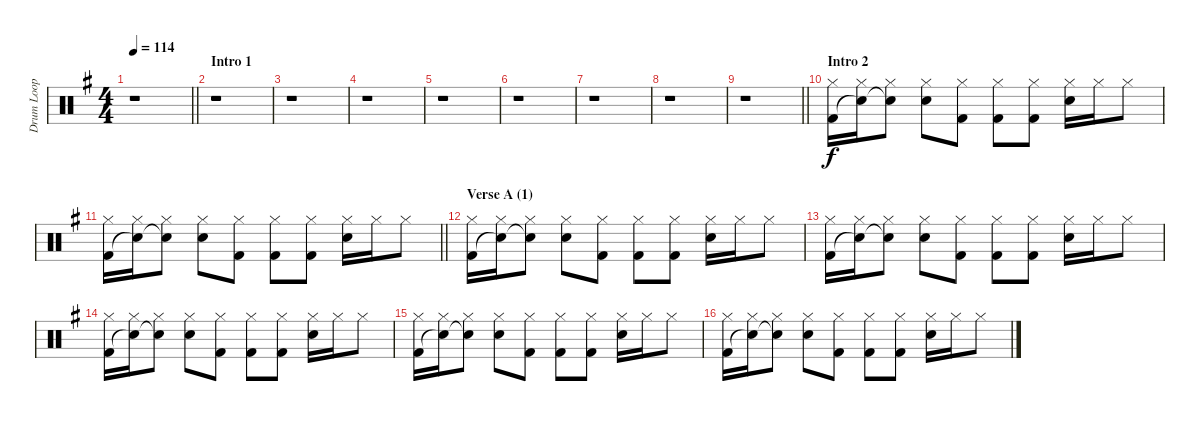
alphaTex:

\track ("Drum Loop" "Drum Loop") {instrument percussion}
\staff {score}
\articulation defaults
\ts (4 4)
\tempo 114
\clef neutral
\barLineRight lightlight
\ks eminor
r.1{dy f} |
\section ("" "Intro 1")
r.1 |
r.1 |
r.1 |
r.1 |
r.1 |
r.1 |
r.1 |
\barLineRight lightlight
r.1 |
\section ("" "Intro 2")
("Hi-Hat (closed)" "Kick (hit) 2").16 ("Hi-Hat (closed)" "Snare (hit)"{t}).16 ("Hi-Hat (closed)" "Snare (hit)"{t}).8 ("Hi-Hat (closed)" "Electric Snare (hit)").8 ("Hi-Hat (closed)" "Kick (hit) 2").8 ("Hi-Hat (closed)" "Kick (hit) 2").8 ("Hi-Hat (closed)" "Kick (hit) 2").8 ("Hi-Hat (closed)" "Electric Snare (hit)").16 "Hi-Hat (closed)".16 "Hi-Hat (closed)".8 |
\barLineRight lightlight
("Hi-Hat (closed)" "Kick (hit) 2").16 ("Hi-Hat (closed)" "Snare (hit)"{t}).16 ("Hi-Hat (closed)" "Snare (hit)"{t}).8 ("Hi-Hat (closed)" "Electric Snare (hit)").8 ("Hi-Hat (closed)" "Kick (hit) 2").8 ("Hi-Hat (closed)" "Kick (hit) 2").8 ("Hi-Hat (closed)" "Kick (hit) 2").8 ("Hi-Hat (closed)" "Electric Snare (hit)").16 "Hi-Hat (closed)".16 "Hi-Hat (closed)".8 |
\section ("" "Verse A (1)")
("Hi-Hat (closed)" "Kick (hit) 2").16 ("Hi-Hat (closed)" "Snare (hit)"{t}).16 ("Hi-Hat (closed)" "Snare (hit)"{t}).8 ("Hi-Hat (closed)" "Electric Snare (hit)").8 ("Hi-Hat (closed)" "Kick (hit) 2").8 ("Hi-Hat (closed)" "Kick (hit) 2").8 ("Hi-Hat (closed)" "Kick (hit) 2").8 ("Hi-Hat (closed)" "Electric Snare (hit)").16 "Hi-Hat (closed)".16 "Hi-Hat (closed)".8 |
("Hi-Hat (closed)" "Kick (hit) 2").16 ("Hi-Hat (closed)" "Snare (hit)"{t}).16 ("Hi-Hat (closed)" "Snare (hit)"{t}).8 ("Hi-Hat (closed)" "Electric Snare (hit)").8 ("Hi-Hat (closed)" "Kick (hit) 2").8 ("Hi-Hat (closed)" "Kick (hit) 2").8 ("Hi-Hat (closed)" "Kick (hit) 2").8 ("Hi-Hat (closed)" "Electric Snare (hit)").16 "Hi-Hat (closed)".16 "Hi-Hat (closed)".8 |
("Hi-Hat (closed)" "Kick (hit) 2").16 ("Hi-Hat (closed)" "Snare (hit)"{t}).16 ("Hi-Hat (closed)" "Snare (hit)"{t}).8 ("Hi-Hat (closed)" "Electric Snare (hit)").8 ("Hi-Hat (closed)" "Kick (hit) 2").8 ("Hi-Hat (closed)" "Kick (hit) 2").8 ("Hi-Hat (closed)" "Kick (hit) 2").8 ("Hi-Hat (closed)" "Electric Snare (hit)").16 "Hi-Hat (closed)".16 "Hi-Hat (closed)".8 |
("Hi-Hat (closed)" "Kick (hit) 2").16 ("Hi-Hat (closed)" "Snare (hit)"{t}).16 ("Hi-Hat (closed)" "Snare (hit)"{t}).8 ("Hi-Hat (closed)" "Electric Snare (hit)").8 ("Hi-Hat (closed)" "Kick (hit) 2").8 ("Hi-Hat (closed)" "Kick (hit) 2").8 ("Hi-Hat (closed)" "Kick (hit) 2").8 ("Hi-Hat (closed)" "Electric Snare (hit)").16 "Hi-Hat (closed)".16 "Hi-Hat (closed)".8 |
("Hi-Hat (closed)" "Kick (hit) 2").16 ("Hi-Hat (closed)" "Snare (hit)"{t}).16 ("Hi-Hat (closed)" "Snare (hit)"{t}).8 ("Hi-Hat (closed)" "Electric Snare (hit)").8 ("Hi-Hat (closed)" "Kick (hit) 2").8 ("Hi-Hat (closed)" "Kick (hit) 2").8 ("Hi-Hat (closed)" "Kick (hit) 2").8 ("Hi-Hat (closed)" "Electric Snare (hit)").16 "Hi-Hat (closed)".16 "Hi-Hat (closed)".8
